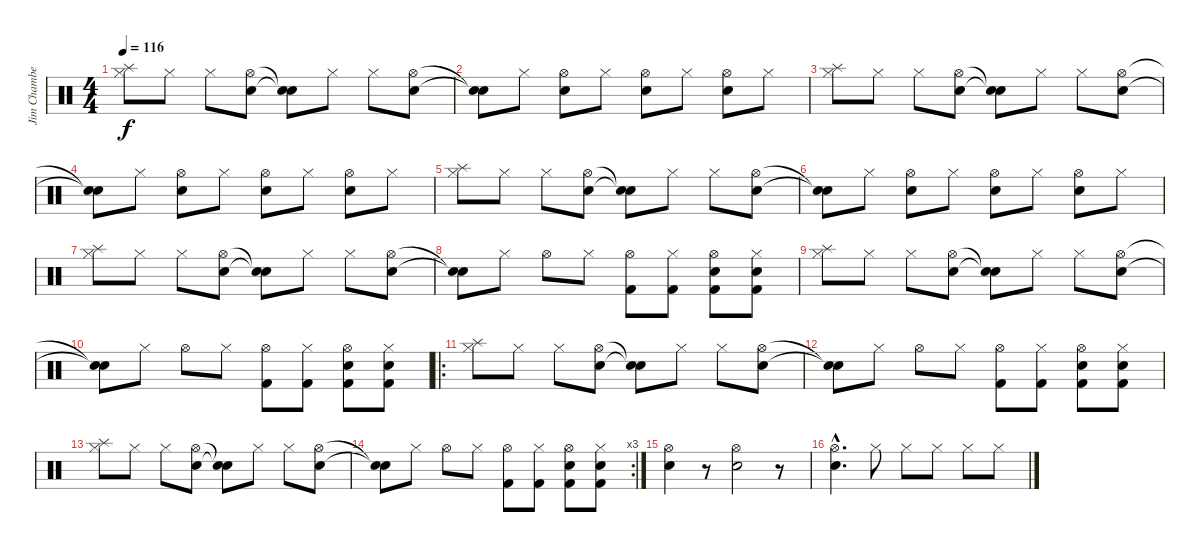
\track ("Jim Chamberlin" "Jim Chambe") {instrument percussion}
\staff {score}
\articulation defaults
\ts (4 4)
\tempo 116
\clef neutral
\ks c
("Splash (hit)" "Hi-Hat (closed)").8{dy f} "Hi-Hat (closed)".8 "Hi-Hat (closed)".8 ("Snare (hit) 2" "Hi-Hat (open)").8 ("Snare (hit)"{t} "Snare (hit)"{t}).8 "Hi-Hat (closed)".8 "Hi-Hat (closed)".8 ("Snare (hit) 2" "Hi-Hat (open)").8 |
("Snare (hit)"{t} "Snare (hit)"{t}).8 "Hi-Hat (closed)".8 ("Snare (hit) 2" "Hi-Hat (open)").8 "Hi-Hat (closed)".8 ("Snare (hit) 2" "Hi-Hat (open)").8 "Hi-Hat (closed)".8 ("Snare (hit) 2" "Hi-Hat (open)").8 "Hi-Hat (closed)".8 |
("Splash (hit)" "Hi-Hat (closed)").8 "Hi-Hat (closed)".8 "Hi-Hat (closed)".8 ("Snare (hit) 2" "Hi-Hat (open)").8 ("Snare (hit)"{t} "Snare (hit)"{t}).8 "Hi-Hat (closed)".8 "Hi-Hat (closed)".8 ("Snare (hit) 2" "Hi-Hat (open)").8 |
("Snare (hit)"{t} "Snare (hit)"{t}).8 "Hi-Hat (closed)".8 ("Snare (hit) 2" "Hi-Hat (open)").8 "Hi-Hat (closed)".8 ("Snare (hit) 2" "Hi-Hat (open)").8 "Hi-Hat (closed)".8 ("Snare (hit) 2" "Hi-Hat (open)").8 "Hi-Hat (closed)".8 |
("Splash (hit)" "Hi-Hat (closed)").8 "Hi-Hat (closed)".8 "Hi-Hat (closed)".8 ("Snare (hit) 2" "Hi-Hat (open)").8 ("Snare (hit)"{t} "Snare (hit)"{t}).8 "Hi-Hat (closed)".8 "Hi-Hat (closed)".8 ("Snare (hit) 2" "Hi-Hat (open)").8 |
("Snare (hit)"{t} "Snare (hit)"{t}).8 "Hi-Hat (closed)".8 ("Snare (hit) 2" "Hi-Hat (open)").8 "Hi-Hat (closed)".8 ("Snare (hit) 2" "Hi-Hat (open)").8 "Hi-Hat (closed)".8 ("Snare (hit) 2" "Hi-Hat (open)").8 "Hi-Hat (closed)".8 |
("Splash (hit)" "Hi-Hat (closed)").8 "Hi-Hat (closed)".8 "Hi-Hat (closed)".8 ("Snare (hit) 2" "Hi-Hat (open)").8 ("Snare (hit)"{t} "Snare (hit)"{t}).8 "Hi-Hat (closed)".8 "Hi-Hat (closed)".8 ("Snare (hit) 2" "Hi-Hat (open)").8 |
("Snare (hit)"{t} "Snare (hit)"{t}).8 "Hi-Hat (closed)".8 "Hi-Hat (open)".8 "Hi-Hat (closed)".8 ("Hi-Hat (open)" "Kick (hit) 2").8 ("Hi-Hat (closed)" "Kick (hit) 2").8 ("Snare (hit) 2" "Hi-Hat (open)" "Kick (hit) 2").8 ("Snare (hit) 2" "Hi-Hat (closed)" "Kick (hit) 2").8 |
("Splash (hit)" "Hi-Hat (closed)").8 "Hi-Hat (closed)".8 "Hi-Hat (closed)".8 ("Snare (hit) 2" "Hi-Hat (open)").8 ("Snare (hit)"{t} "Snare (hit)"{t}).8 "Hi-Hat (closed)".8 "Hi-Hat (closed)".8 ("Snare (hit) 2" "Hi-Hat (open)").8 |
("Snare (hit)"{t} "Snare (hit)"{t}).8 "Hi-Hat (closed)".8 "Hi-Hat (open)".8 "Hi-Hat (closed)".8 ("Hi-Hat (open)" "Kick (hit) 2").8 ("Hi-Hat (closed)" "Kick (hit) 2").8 ("Snare (hit) 2" "Hi-Hat (open)" "Kick (hit) 2").8 ("Snare (hit) 2" "Hi-Hat (closed)" "Kick (hit) 2").8 |
\ro
("Splash (hit)" "Hi-Hat (closed)").8 "Hi-Hat (closed)".8 "Hi-Hat (closed)".8 ("Snare (hit) 2" "Hi-Hat (open)").8 ("Snare (hit)"{t} "Snare (hit)"{t}).8 "Hi-Hat (closed)".8 "Hi-Hat (closed)".8 ("Snare (hit) 2" "Hi-Hat (open)").8 |
("Snare (hit)"{t} "Snare (hit)"{t}).8 "Hi-Hat (closed)".8 "Hi-Hat (open)".8 "Hi-Hat (closed)".8 ("Hi-Hat (open)" "Kick (hit) 2").8 ("Hi-Hat (closed)" "Kick (hit) 2").8 ("Snare (hit) 2" "Hi-Hat (open)" "Kick (hit) 2").8 ("Snare (hit) 2" "Hi-Hat (closed)" "Kick (hit) 2").8 |
("Splash (hit)" "Hi-Hat (closed)").8 "Hi-Hat (closed)".8 "Hi-Hat (closed)".8 ("Snare (hit) 2" "Hi-Hat (open)").8 ("Snare (hit)"{t} "Snare (hit)"{t}).8 "Hi-Hat (closed)".8 "Hi-Hat (closed)".8 ("Snare (hit) 2" "Hi-Hat (open)").8 |
\rc 3
("Snare (hit)"{t} "Snare (hit)"{t}).8 "Hi-Hat (closed)".8 "Hi-Hat (open)".8 "Hi-Hat (closed)".8 ("Hi-Hat (open)" "Kick (hit) 2").8 ("Hi-Hat (closed)" "Kick (hit) 2").8 ("Snare (hit) 2" "Hi-Hat (open)" "Kick (hit) 2").8 ("Snare (hit) 2" "Hi-Hat (closed)" "Kick (hit) 2").8 |
("Hi-Hat (open)" "Snare (hit) 2").4 r.8 ("Hi-Hat (open)" "Snare (hit) 2").2 r.8 |
("Hi-Hat (open)"{hac} "Snare (hit) 2"{hac}).4{d} "Hi-Hat (closed)".8 "Hi-Hat (closed)".8 "Hi-Hat (closed)".8 "Hi-Hat (closed)".8 "Hi-Hat (closed)".8
